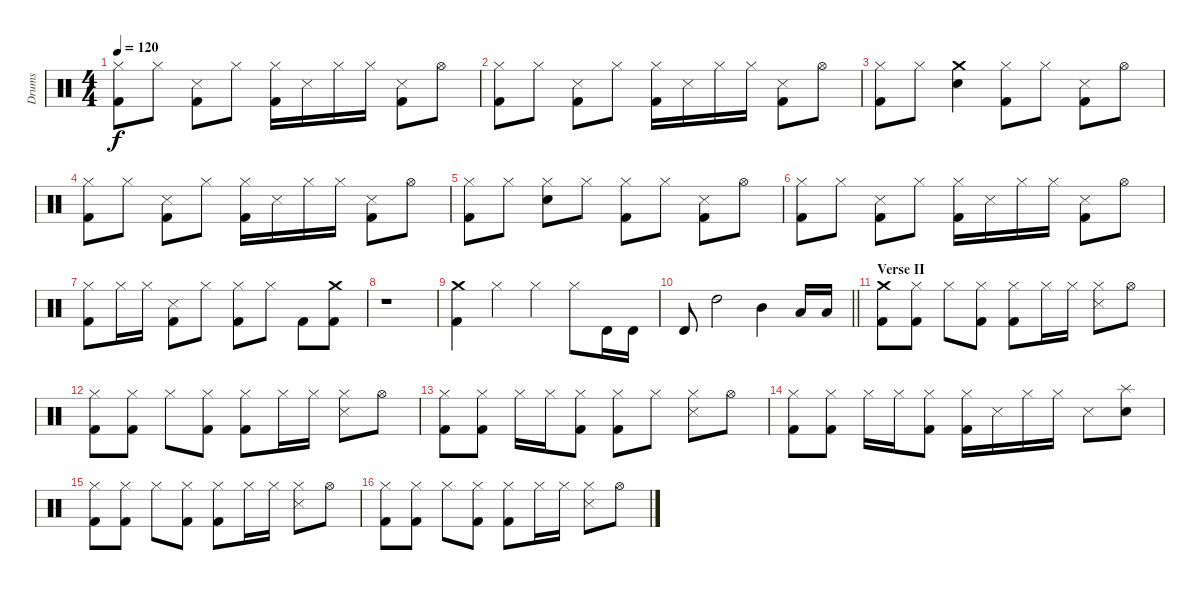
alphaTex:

\track ("Drums" "Drums") {instrument percussion}
\staff {score}
\articulation defaults
\ts (4 4)
\tempo 120
\clef neutral
\ks c
("Hi-Hat (closed)" "Kick (hit) 2").8{dy f} "Hi-Hat (closed)".8 ("Snare (side stick) 3" "Kick (hit) 2").8 "Hi-Hat (closed)".8 ("Hi-Hat (closed)" "Kick (hit) 2").16 "Snare (side stick) 3".16 "Hi-Hat (closed)".16 "Hi-Hat (closed)".16 ("Snare (side stick) 3" "Kick (hit) 2").8 "Hi-Hat (open)".8 |
("Hi-Hat (closed)" "Kick (hit) 2").8 "Hi-Hat (closed)".8 ("Snare (side stick) 3" "Kick (hit) 2").8 "Hi-Hat (closed)".8 ("Hi-Hat (closed)" "Kick (hit) 2").16 "Snare (side stick) 3".16 "Hi-Hat (closed)".16 "Hi-Hat (closed)".16 ("Snare (side stick) 3" "Kick (hit) 2").8 "Hi-Hat (open)".8 |
("Hi-Hat (closed)" "Kick (hit) 2").8 "Hi-Hat (closed)".8 ("Crash medium (hit)" "Snare (hit) 2").4 ("Hi-Hat (closed)" "Kick (hit) 2").8 "Hi-Hat (closed)".8 ("Snare (side stick) 3" "Kick (hit) 2").8 "Hi-Hat (open)".8 |
("Hi-Hat (closed)" "Kick (hit) 2").8 "Hi-Hat (closed)".8 ("Snare (side stick) 3" "Kick (hit) 2").8 "Hi-Hat (closed)".8 ("Hi-Hat (closed)" "Kick (hit) 2").16 "Snare (side stick) 3".16 "Hi-Hat (closed)".16 "Hi-Hat (closed)".16 ("Snare (side stick) 3" "Kick (hit) 2").8 "Hi-Hat (open)".8 |
("Hi-Hat (closed)" "Kick (hit) 2").8 "Hi-Hat (closed)".8 ("Hi-Hat (closed)" "Snare (hit) 2").8 "Hi-Hat (closed)".8 ("Hi-Hat (closed)" "Kick (hit) 2").8 "Hi-Hat (closed)".8 ("Snare (side stick) 3" "Kick (hit) 2").8 "Hi-Hat (open)".8 |
("Hi-Hat (closed)" "Kick (hit) 2").8 "Hi-Hat (closed)".8 ("Snare (side stick) 3" "Kick (hit) 2").8 "Hi-Hat (closed)".8 ("Hi-Hat (closed)" "Kick (hit) 2").16 "Snare (side stick) 3".16 "Hi-Hat (closed)".16 "Hi-Hat (closed)".16 ("Snare (side stick) 3" "Kick (hit) 2").8 "Hi-Hat (open)".8 |
("Hi-Hat (closed)" "Kick (hit) 2").8 "Hi-Hat (closed)".16 "Hi-Hat (closed)".16 ("Snare (side stick) 3" "Kick (hit) 2").8 "Hi-Hat (closed)".8 ("Hi-Hat (closed)" "Kick (hit) 2").8 "Hi-Hat (closed)".8 "Kick (hit) 2".8 ("Crash medium (hit)" "Kick (hit) 2").8 |
r.1 |
("Crash medium (hit)" "Kick (hit) 2").4 "Hi-Hat (closed)".4 "Hi-Hat (closed)".4 "Hi-Hat (closed)".8 "Timbale high (hit)".16 "Timbale high (hit)".16 |
\barLineRight lightlight "Timbale high (hit)".8 "High Tom (hit)".2 "Mid Tom (hit)".4 "Low Tom (hit)".16 "Low Tom (hit)".16
|
\section ("" "Verse II")
("Crash medium (hit)" "Kick (hit) 2").8 ("Hi-Hat (closed)" "Kick (hit) 2").8 "Hi-Hat (closed)".8 ("Hi-Hat (closed)" "Kick (hit) 2").8 ("Hi-Hat (closed)" "Kick (hit) 2").8 "Hi-Hat (closed)".16 "Hi-Hat (closed)".16 ("Hi-Hat (closed)" "Snare (side stick) 3").8 "Hi-Hat (open)".8 |
("Hi-Hat (closed)" "Kick (hit) 2").8 ("Hi-Hat (closed)" "Kick (hit) 2").8 "Hi-Hat (closed)".8 ("Hi-Hat (closed)" "Kick (hit) 2").8 ("Hi-Hat (closed)" "Kick (hit) 2").8 "Hi-Hat (closed)".16 "Hi-Hat (closed)".16 ("Hi-Hat (closed)" "Snare (side stick) 3").8 "Hi-Hat (open)".8 |
("Hi-Hat (closed)" "Kick (hit) 2").8 ("Hi-Hat (closed)" "Kick (hit) 2").8 "Hi-Hat (closed)".16 "Hi-Hat (closed)".16 ("Hi-Hat (closed)" "Kick (hit) 2").8 ("Hi-Hat (closed)" "Kick (hit) 2").8 "Hi-Hat (closed)".8 ("Hi-Hat (closed)" "Snare (side stick) 3").8 "Hi-Hat (open)".8 |
("Hi-Hat (closed)" "Kick (hit) 2").8 ("Hi-Hat (closed)" "Kick (hit) 2").8 "Hi-Hat (closed)".16 "Hi-Hat (closed)".16 ("Hi-Hat (closed)" "Kick (hit) 2").8 ("Hi-Hat (closed)" "Kick (hit) 2").16 "Snare (side stick) 3".16 "Hi-Hat (closed)".16 "Hi-Hat (closed)".16 "Snare (side stick) 3".8 ("Splash (hit)" "Snare (hit) 2").8 |
("Hi-Hat (closed)" "Kick (hit) 2").8 ("Hi-Hat (closed)" "Kick (hit) 2").8 "Hi-Hat (closed)".8 ("Hi-Hat (closed)" "Kick (hit) 2").8 ("Hi-Hat (closed)" "Kick (hit) 2").8 "Hi-Hat (closed)".16 "Hi-Hat (closed)".16 ("Hi-Hat (closed)" "Snare (side stick) 3").8 "Hi-Hat (open)".8 |
("Hi-Hat (closed)" "Kick (hit) 2").8 ("Hi-Hat (closed)" "Kick (hit) 2").8 "Hi-Hat (closed)".8 ("Hi-Hat (closed)" "Kick (hit) 2").8 ("Hi-Hat (closed)" "Kick (hit) 2").8 "Hi-Hat (closed)".16 "Hi-Hat (closed)".16 ("Hi-Hat (closed)" "Snare (side stick) 3").8 "Hi-Hat (open)".8
